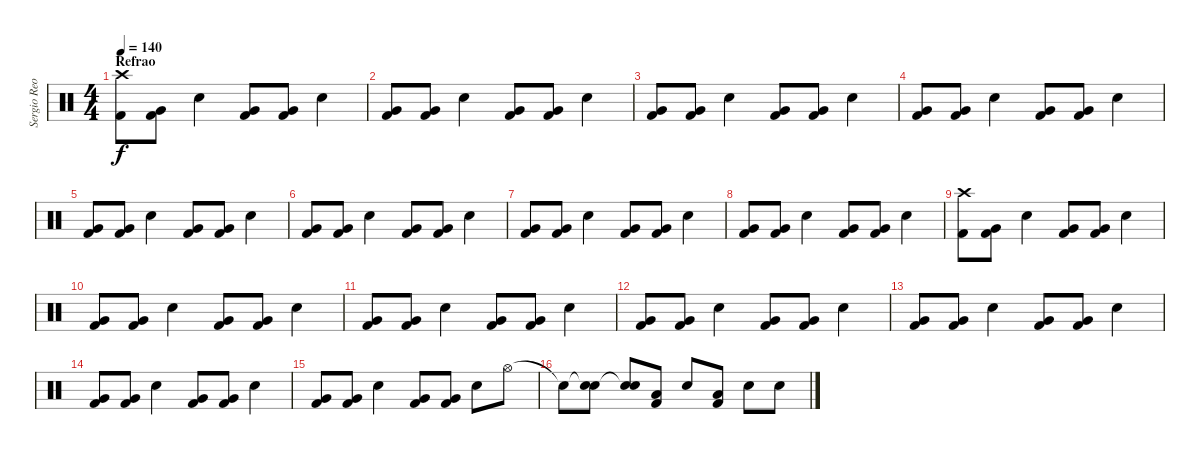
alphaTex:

\track ("Sergio Reoli" "Sergio Reo") {instrument percussion}
\staff {score}
\articulation defaults
\ts (4 4)
\section ("" "Refrao")
\tempo 140
\clef neutral
\ks c
("Crash high (hit)" "Kick (hit) 2").8{dy f} ("Very Low Tom (hit)" "Kick (hit) 2").8 "Electric Snare (hit)".4 ("Very Low Tom (hit)" "Kick (hit) 2").8 ("Very Low Tom (hit)" "Kick (hit) 2").8 "Electric Snare (hit)".4 |
("Very Low Tom (hit)" "Kick (hit) 2").8 ("Very Low Tom (hit)" "Kick (hit) 2").8 "Electric Snare (hit)".4 ("Very Low Tom (hit)" "Kick (hit) 2").8 ("Very Low Tom (hit)" "Kick (hit) 2").8 "Electric Snare (hit)".4 |
("Very Low Tom (hit)" "Kick (hit) 2").8 ("Very Low Tom (hit)" "Kick (hit) 2").8 "Electric Snare (hit)".4 ("Very Low Tom (hit)" "Kick (hit) 2").8 ("Very Low Tom (hit)" "Kick (hit) 2").8 "Electric Snare (hit)".4 |
("Very Low Tom (hit)" "Kick (hit) 2").8 ("Very Low Tom (hit)" "Kick (hit) 2").8 "Electric Snare (hit)".4 ("Very Low Tom (hit)" "Kick (hit) 2").8 ("Very Low Tom (hit)" "Kick (hit) 2").8 "Electric Snare (hit)".4 |
("Very Low Tom (hit)" "Kick (hit) 2").8 ("Very Low Tom (hit)" "Kick (hit) 2").8 "Electric Snare (hit)".4 ("Very Low Tom (hit)" "Kick (hit) 2").8 ("Very Low Tom (hit)" "Kick (hit) 2").8 "Electric Snare (hit)".4 |
("Very Low Tom (hit)" "Kick (hit) 2").8 ("Very Low Tom (hit)" "Kick (hit) 2").8 "Electric Snare (hit)".4 ("Very Low Tom (hit)" "Kick (hit) 2").8 ("Very Low Tom (hit)" "Kick (hit) 2").8 "Electric Snare (hit)".4 |
("Very Low Tom (hit)" "Kick (hit) 2").8 ("Very Low Tom (hit)" "Kick (hit) 2").8 "Electric Snare (hit)".4 ("Very Low Tom (hit)" "Kick (hit) 2").8 ("Very Low Tom (hit)" "Kick (hit) 2").8 "Electric Snare (hit)".4 |
("Very Low Tom (hit)" "Kick (hit) 2").8 ("Very Low Tom (hit)" "Kick (hit) 2").8 "Electric Snare (hit)".4 ("Very Low Tom (hit)" "Kick (hit) 2").8 ("Very Low Tom (hit)" "Kick (hit) 2").8 "Electric Snare (hit)".4 |
("Crash high (hit)" "Kick (hit) 2").8 ("Very Low Tom (hit)" "Kick (hit) 2").8 "Electric Snare (hit)".4 ("Very Low Tom (hit)" "Kick (hit) 2").8 ("Very Low Tom (hit)" "Kick (hit) 2").8 "Electric Snare (hit)".4 |
("Very Low Tom (hit)" "Kick (hit) 2").8 ("Very Low Tom (hit)" "Kick (hit) 2").8 "Electric Snare (hit)".4 ("Very Low Tom (hit)" "Kick (hit) 2").8 ("Very Low Tom (hit)" "Kick (hit) 2").8 "Electric Snare (hit)".4 |
("Very Low Tom (hit)" "Kick (hit) 2").8 ("Very Low Tom (hit)" "Kick (hit) 2").8 "Electric Snare (hit)".4 ("Very Low Tom (hit)" "Kick (hit) 2").8 ("Very Low Tom (hit)" "Kick (hit) 2").8 "Electric Snare (hit)".4 |
("Very Low Tom (hit)" "Kick (hit) 2").8 ("Very Low Tom (hit)" "Kick (hit) 2").8 "Electric Snare (hit)".4 ("Very Low Tom (hit)" "Kick (hit) 2").8 ("Very Low Tom (hit)" "Kick (hit) 2").8 "Electric Snare (hit)".4 |
("Very Low Tom (hit)" "Kick (hit) 2").8 ("Very Low Tom (hit)" "Kick (hit) 2").8 "Electric Snare (hit)".4 ("Very Low Tom (hit)" "Kick (hit) 2").8 ("Very Low Tom (hit)" "Kick (hit) 2").8 "Electric Snare (hit)".4 |
("Very Low Tom (hit)" "Kick (hit) 2").8 ("Very Low Tom (hit)" "Kick (hit) 2").8 "Electric Snare (hit)".4 ("Very Low Tom (hit)" "Kick (hit) 2").8 ("Very Low Tom (hit)" "Kick (hit) 2").8 "Electric Snare (hit)".4 |
("Very Low Tom (hit)" "Kick (hit) 2").8 ("Very Low Tom (hit)" "Kick (hit) 2").8 "Electric Snare (hit)".4 ("Very Low Tom (hit)" "Kick (hit) 2").8 ("Very Low Tom (hit)" "Kick (hit) 2").8 "Electric Snare (hit)".8 "Hi-Hat (open)".8 |
"Snare (hit)"{t}.8 ("Snare (hit)"{t} "Electric Snare (hit)").8 ("Snare (hit)"{t} "Electric Snare (hit)").8 ("Low Tom (hit)" "Kick (hit) 2").8 "Electric Snare (hit)".8 ("Low Tom (hit)" "Kick (hit) 2").8 "Electric Snare (hit)".8 "Electric Snare (hit)".8
